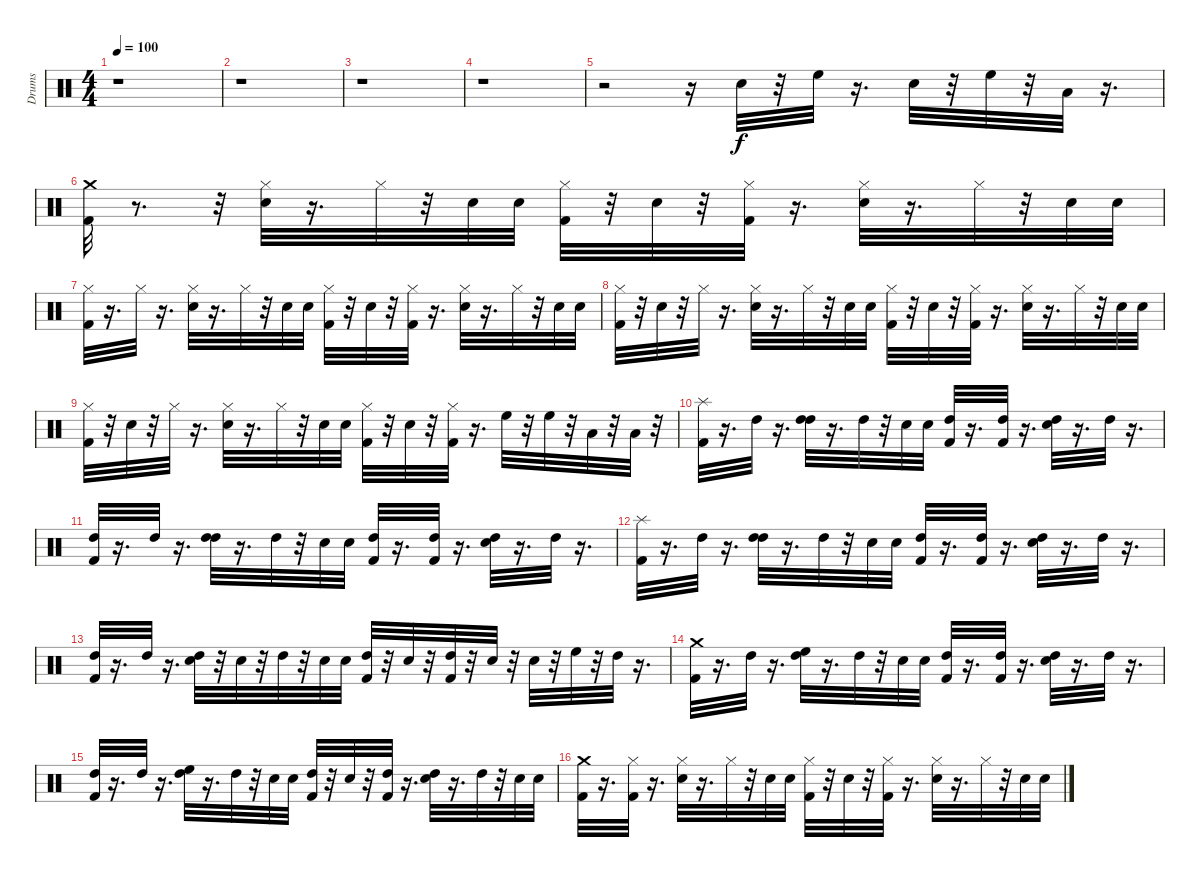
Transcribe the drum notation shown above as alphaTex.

\track ("Drums" "Drums") {instrument percussion}
\staff {score}
\articulation defaults
\ts (4 4)
\tempo 100
\clef neutral
\ks c
r.1{dy f} |
r.1 |
r.1 |
r.1 |
r.2 r.16 "Snare (hit) 2".32 r.32 "High Floor Tom (hit)".32 r.16{d} "Snare (hit) 2".32 r.32 "High Floor Tom (hit)".32 r.32 "Low Tom (hit)".32 r.16{d} |
("Kick (hit) 2" "Crash medium (hit)").32 r.8{d} r.32 ("Hi-Hat (closed)" "Snare (hit) 2").32 r.16{d} "Hi-Hat (closed)".32 r.32 "Snare (hit) 2".32 "Snare (hit) 2".32 ("Hi-Hat (closed)" "Kick (hit) 2").32 r.32 "Snare (hit) 2".32 r.32 ("Hi-Hat (closed)" "Kick (hit) 2").32 r.16{d} ("Hi-Hat (closed)" "Snare (hit) 2").32 r.16{d} "Hi-Hat (closed)".32 r.32 "Snare (hit) 2".32 "Snare (hit) 2".32 |
("Kick (hit) 2" "Hi-Hat (closed)").32 r.16{d} "Hi-Hat (closed)".32 r.16{d} ("Hi-Hat (closed)" "Snare (hit) 2").32 r.16{d} "Hi-Hat (closed)".32 r.32 "Snare (hit) 2".32 "Snare (hit) 2".32 ("Hi-Hat (closed)" "Kick (hit) 2").32 r.32 "Snare (hit) 2".32 r.32 ("Hi-Hat (closed)" "Kick (hit) 2").32 r.16{d} ("Hi-Hat (closed)" "Snare (hit) 2").32 r.16{d} "Hi-Hat (closed)".32 r.32 "Snare (hit) 2".32 "Snare (hit) 2".32 |
("Kick (hit) 2" "Hi-Hat (closed)").32 r.32 "Snare (hit) 2".32 r.32 "Hi-Hat (closed)".32 r.16{d} ("Hi-Hat (closed)" "Snare (hit) 2").32 r.16{d} "Hi-Hat (closed)".32 r.32 "Snare (hit) 2".32 "Snare (hit) 2".32 ("Hi-Hat (closed)" "Kick (hit) 2").32 r.32 "Snare (hit) 2".32 r.32 ("Hi-Hat (closed)" "Kick (hit) 2").32 r.16{d} ("Hi-Hat (closed)" "Snare (hit) 2").32 r.16{d} "Hi-Hat (closed)".32 r.32 "Snare (hit) 2".32 "Snare (hit) 2".32 |
("Kick (hit) 2" "Hi-Hat (closed)").32 r.32 "Snare (hit) 2".32 r.32 "Hi-Hat (closed)".32 r.16{d} ("Hi-Hat (closed)" "Snare (hit) 2").32 r.16{d} "Hi-Hat (closed)".32 r.32 "Snare (hit) 2".32 "Snare (hit) 2".32 ("Hi-Hat (closed)" "Kick (hit) 2").32 r.32 "Snare (hit) 2".32 r.32 ("Hi-Hat (closed)" "Kick (hit) 2").32 r.16{d} "High Floor Tom (hit)".32 r.32 "High Floor Tom (hit)".32 r.32 "Low Tom (hit)".32 r.32 "Low Tom (hit)".32 r.32 |
("Kick (hit) 2" "Splash (hit)").32 r.16{d} "High Tom (hit)".32 r.16{d} ("High Tom (hit)" "High Tom (hit)").32 r.16{d} "High Tom (hit)".32 r.32 "Snare (hit) 2".32 "Snare (hit) 2".32 ("Kick (hit) 2" "High Tom (hit)").32 r.16{d} ("Kick (hit) 2" "High Tom (hit)").32 r.16{d} ("High Tom (hit)" "Snare (hit) 2").32 r.16{d} "High Tom (hit)".32 r.16{d} |
("Kick (hit) 2" "High Tom (hit)").32 r.16{d} "High Tom (hit)".32 r.16{d} ("High Tom (hit)" "High Tom (hit)").32 r.16{d} "High Tom (hit)".32 r.32 "Snare (hit) 2".32 "Snare (hit) 2".32 ("Kick (hit) 2" "High Tom (hit)").32 r.16{d} ("Kick (hit) 2" "High Tom (hit)").32 r.16{d} ("High Tom (hit)" "Snare (hit) 2").32 r.16{d} "High Tom (hit)".32 r.16{d} |
("Kick (hit) 2" "Splash (hit)").32 r.16{d} "High Tom (hit)".32 r.16{d} ("High Tom (hit)" "High Tom (hit)").32 r.16{d} "High Tom (hit)".32 r.32 "Snare (hit) 2".32 "Snare (hit) 2".32 ("Kick (hit) 2" "High Tom (hit)").32 r.16{d} ("Kick (hit) 2" "High Tom (hit)").32 r.16{d} ("High Tom (hit)" "Snare (hit) 2").32 r.16{d} "High Tom (hit)".32 r.16{d} |
("Kick (hit) 2" "High Tom (hit)").32 r.16{d} "High Tom (hit)".32 r.16{d} ("High Tom (hit)" "Snare (hit) 2").32 r.32 "Snare (hit) 2".32 r.32 "High Tom (hit)".32 r.32 "Snare (hit) 2".32 "Snare (hit) 2".32 ("Kick (hit) 2" "High Tom (hit)").32 r.32 "Snare (hit) 2".32 r.32 ("Kick (hit) 2" "High Tom (hit)").32 r.32 "Snare (hit) 2".32 r.32 "Snare (hit) 2".32 r.32 "High Floor Tom (hit)".32 r.32 "High Tom (hit)".32 r.16{d} |
("Kick (hit) 2" "Crash medium (hit)").32 r.16{d} "High Tom (hit)".32 r.16{d} ("High Tom (hit)" "High Floor Tom (hit)").32 r.16{d} "High Tom (hit)".32 r.32 "Snare (hit) 2".32 "Snare (hit) 2".32 ("Kick (hit) 2" "High Tom (hit)").32 r.16{d} ("Kick (hit) 2" "High Tom (hit)").32 r.16{d} ("High Tom (hit)" "Snare (hit) 2").32 r.16{d} "High Tom (hit)".32 r.16{d} |
("Kick (hit) 2" "High Tom (hit)").32 r.16{d} "High Tom (hit)".32 r.16{d} ("High Tom (hit)" "High Floor Tom (hit)").32 r.16{d} "High Tom (hit)".32 r.32 "Snare (hit) 2".32 "Snare (hit) 2".32 ("Kick (hit) 2" "High Tom (hit)").32 r.32 "Snare (hit) 2".32 r.32 ("Kick (hit) 2" "High Tom (hit)").32 r.16{d} ("High Tom (hit)" "Snare (hit) 2").32 r.16{d} "High Tom (hit)".32 r.32 "Snare (hit) 2".32 "Snare (hit) 2".32 |
("Kick (hit) 2" "Crash medium (hit)").32 r.16{d} ("Kick (hit) 2" "Hi-Hat (closed)").32 r.16{d} ("Snare (hit) 2" "Hi-Hat (closed)").32 r.16{d} "Hi-Hat (closed)".32 r.32 "Snare (hit) 2".32 "Snare (hit) 2".32 ("Kick (hit) 2" "Hi-Hat (closed)").32 r.32 "Snare (hit) 2".32 r.32 ("Kick (hit) 2" "Hi-Hat (closed)").32 r.16{d} ("Snare (hit) 2" "Hi-Hat (closed)").32 r.16{d} "Hi-Hat (closed)".32 r.32 "Snare (hit) 2".32 "Snare (hit) 2".32
